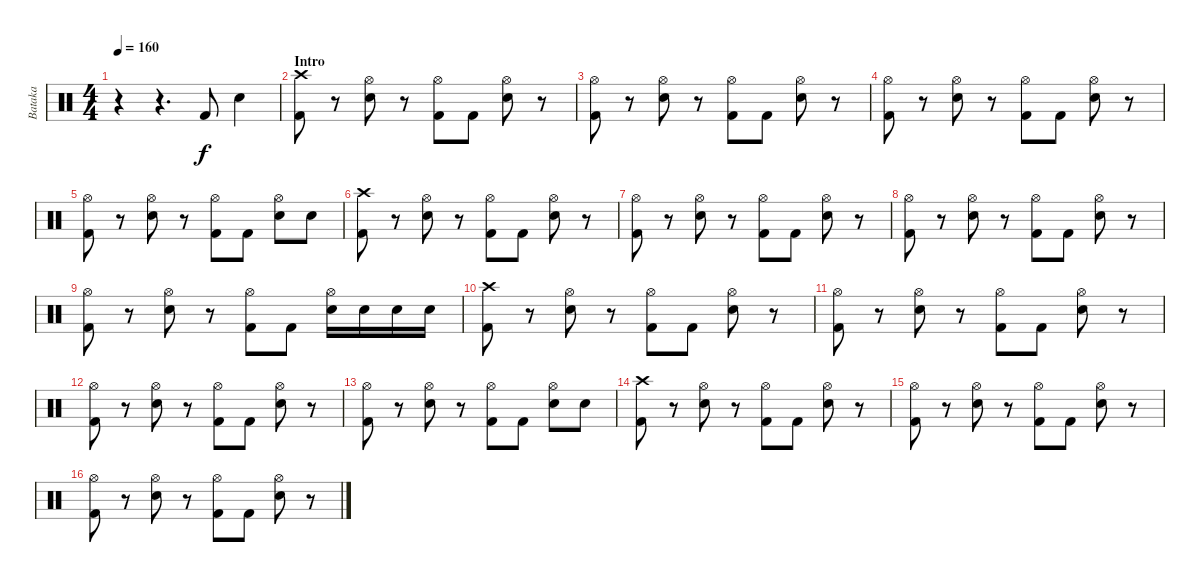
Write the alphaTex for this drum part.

\track ("Bataka" "Bataka") {instrument percussion}
\staff {score}
\articulation defaults
\ts (4 4)
\tempo 160
\clef neutral
\ks c
r.4{dy f} r.4{d} "Kick (hit) 2".8 "Snare (hit) 2".4 |
\section ("" "Intro")
("Crash high (hit)" "Kick (hit) 2").8 r.8 ("Hi-Hat (open)" "Snare (hit) 2").8 r.8 ("Hi-Hat (open)" "Kick (hit) 2").8 "Kick (hit) 2".8 ("Hi-Hat (open)" "Snare (hit) 2").8 r.8 |
("Hi-Hat (open)" "Kick (hit) 2").8 r.8 ("Hi-Hat (open)" "Snare (hit) 2").8 r.8 ("Hi-Hat (open)" "Kick (hit) 2").8 "Kick (hit) 2".8 ("Hi-Hat (open)" "Snare (hit) 2").8 r.8 |
("Hi-Hat (open)" "Kick (hit) 2").8 r.8 ("Hi-Hat (open)" "Snare (hit) 2").8 r.8 ("Hi-Hat (open)" "Kick (hit) 2").8 "Kick (hit) 2".8 ("Hi-Hat (open)" "Snare (hit) 2").8 r.8 |
("Hi-Hat (open)" "Kick (hit) 2").8 r.8 ("Hi-Hat (open)" "Snare (hit) 2").8 r.8 ("Hi-Hat (open)" "Kick (hit) 2").8 "Kick (hit) 2".8 ("Hi-Hat (open)" "Snare (hit) 2").8 "Snare (hit) 2".8 |
("Crash high (hit)" "Kick (hit) 2").8 r.8 ("Hi-Hat (open)" "Snare (hit) 2").8 r.8 ("Hi-Hat (open)" "Kick (hit) 2").8 "Kick (hit) 2".8 ("Hi-Hat (open)" "Snare (hit) 2").8 r.8 |
("Hi-Hat (open)" "Kick (hit) 2").8 r.8 ("Hi-Hat (open)" "Snare (hit) 2").8 r.8 ("Hi-Hat (open)" "Kick (hit) 2").8 "Kick (hit) 2".8 ("Hi-Hat (open)" "Snare (hit) 2").8 r.8 |
("Hi-Hat (open)" "Kick (hit) 2").8 r.8 ("Hi-Hat (open)" "Snare (hit) 2").8 r.8 ("Hi-Hat (open)" "Kick (hit) 2").8 "Kick (hit) 2".8 ("Hi-Hat (open)" "Snare (hit) 2").8 r.8 |
("Hi-Hat (open)" "Kick (hit) 2").8 r.8 ("Hi-Hat (open)" "Snare (hit) 2").8 r.8 ("Hi-Hat (open)" "Kick (hit) 2").8 "Kick (hit) 2".8 ("Hi-Hat (open)" "Snare (hit) 2").16 "Snare (hit) 2".16 "Snare (hit) 2".16 "Snare (hit) 2".16 |
("Crash high (hit)" "Kick (hit) 2").8 r.8 ("Hi-Hat (open)" "Snare (hit) 2").8 r.8 ("Hi-Hat (open)" "Kick (hit) 2").8 "Kick (hit) 2".8 ("Hi-Hat (open)" "Snare (hit) 2").8 r.8 |
("Hi-Hat (open)" "Kick (hit) 2").8 r.8 ("Hi-Hat (open)" "Snare (hit) 2").8 r.8 ("Hi-Hat (open)" "Kick (hit) 2").8 "Kick (hit) 2".8 ("Hi-Hat (open)" "Snare (hit) 2").8 r.8 |
("Hi-Hat (open)" "Kick (hit) 2").8 r.8 ("Hi-Hat (open)" "Snare (hit) 2").8 r.8 ("Hi-Hat (open)" "Kick (hit) 2").8 "Kick (hit) 2".8 ("Hi-Hat (open)" "Snare (hit) 2").8 r.8 |
("Hi-Hat (open)" "Kick (hit) 2").8 r.8 ("Hi-Hat (open)" "Snare (hit) 2").8 r.8 ("Hi-Hat (open)" "Kick (hit) 2").8 "Kick (hit) 2".8 ("Hi-Hat (open)" "Snare (hit) 2").8 "Snare (hit) 2".8 |
("Crash high (hit)" "Kick (hit) 2").8 r.8 ("Hi-Hat (open)" "Snare (hit) 2").8 r.8 ("Hi-Hat (open)" "Kick (hit) 2").8 "Kick (hit) 2".8 ("Hi-Hat (open)" "Snare (hit) 2").8 r.8 |
("Hi-Hat (open)" "Kick (hit) 2").8 r.8 ("Hi-Hat (open)" "Snare (hit) 2").8 r.8 ("Hi-Hat (open)" "Kick (hit) 2").8 "Kick (hit) 2".8 ("Hi-Hat (open)" "Snare (hit) 2").8 r.8 |
("Hi-Hat (open)" "Kick (hit) 2").8 r.8 ("Hi-Hat (open)" "Snare (hit) 2").8 r.8 ("Hi-Hat (open)" "Kick (hit) 2").8 "Kick (hit) 2".8 ("Hi-Hat (open)" "Snare (hit) 2").8 r.8
